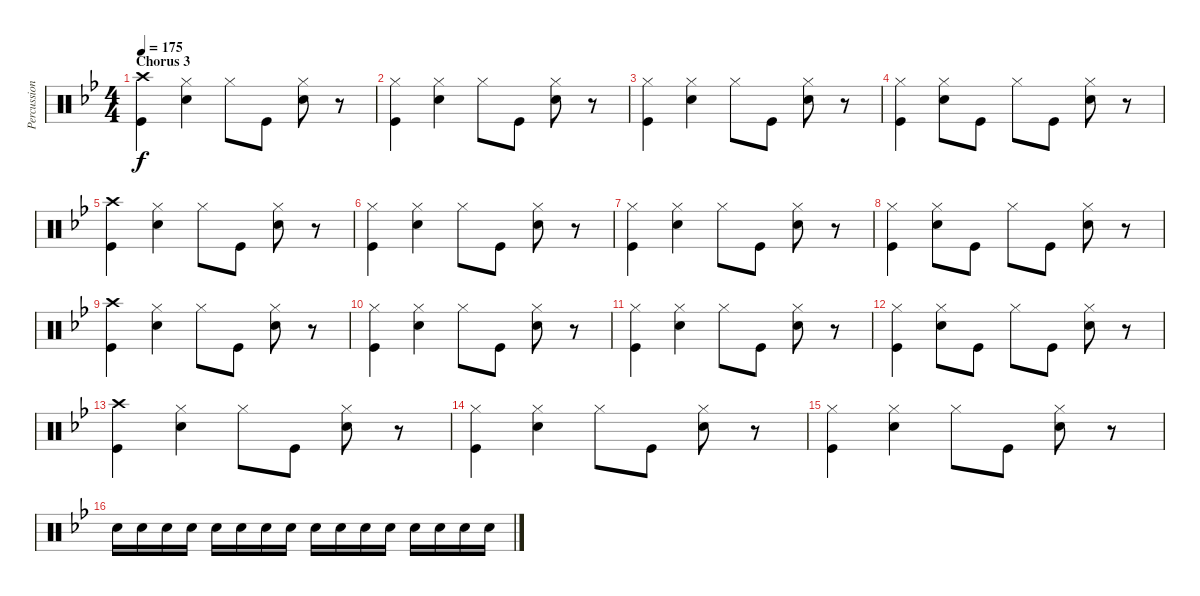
\track ("Percussion" "Percussion") {instrument percussion}
\staff {score}
\articulation defaults
\ts (4 4)
\section ("" "Chorus 3")
\tempo 175
\clef neutral
\ks bb
("Kick (hit)" "Crash high (hit)").4{dy f} ("Snare (hit) 2" "Hi-Hat (closed)").4 "Hi-Hat (closed)".8 "Kick (hit)".8 ("Snare (hit) 2" "Hi-Hat (closed)").8 r.8 |
("Kick (hit)" "Hi-Hat (closed)").4 ("Snare (hit) 2" "Hi-Hat (closed)").4 "Hi-Hat (closed)".8 "Kick (hit)".8 ("Snare (hit) 2" "Hi-Hat (closed)").8 r.8 |
("Kick (hit)" "Hi-Hat (closed)").4 ("Snare (hit) 2" "Hi-Hat (closed)").4 "Hi-Hat (closed)".8 "Kick (hit)".8 ("Snare (hit) 2" "Hi-Hat (closed)").8 r.8 |
("Kick (hit)" "Hi-Hat (closed)").4 ("Snare (hit) 2" "Hi-Hat (closed)").8 "Kick (hit)".8 "Hi-Hat (closed)".8 "Kick (hit)".8 ("Snare (hit) 2" "Hi-Hat (closed)").8 r.8 |
("Kick (hit)" "Crash high (hit)").4 ("Snare (hit) 2" "Hi-Hat (closed)").4 "Hi-Hat (closed)".8 "Kick (hit)".8 ("Snare (hit) 2" "Hi-Hat (closed)").8 r.8 |
("Kick (hit)" "Hi-Hat (closed)").4 ("Snare (hit) 2" "Hi-Hat (closed)").4 "Hi-Hat (closed)".8 "Kick (hit)".8 ("Snare (hit) 2" "Hi-Hat (closed)").8 r.8 |
("Kick (hit)" "Hi-Hat (closed)").4 ("Snare (hit) 2" "Hi-Hat (closed)").4 "Hi-Hat (closed)".8 "Kick (hit)".8 ("Snare (hit) 2" "Hi-Hat (closed)").8 r.8 |
("Kick (hit)" "Hi-Hat (closed)").4 ("Snare (hit) 2" "Hi-Hat (closed)").8 "Kick (hit)".8 "Hi-Hat (closed)".8 "Kick (hit)".8 ("Snare (hit) 2" "Hi-Hat (closed)").8 r.8 |
("Kick (hit)" "Crash high (hit)").4 ("Snare (hit) 2" "Hi-Hat (closed)").4 "Hi-Hat (closed)".8 "Kick (hit)".8 ("Snare (hit) 2" "Hi-Hat (closed)").8 r.8 |
("Kick (hit)" "Hi-Hat (closed)").4 ("Snare (hit) 2" "Hi-Hat (closed)").4 "Hi-Hat (closed)".8 "Kick (hit)".8 ("Snare (hit) 2" "Hi-Hat (closed)").8 r.8 |
("Kick (hit)" "Hi-Hat (closed)").4 ("Snare (hit) 2" "Hi-Hat (closed)").4 "Hi-Hat (closed)".8 "Kick (hit)".8 ("Snare (hit) 2" "Hi-Hat (closed)").8 r.8 |
("Kick (hit)" "Hi-Hat (closed)").4 ("Snare (hit) 2" "Hi-Hat (closed)").8 "Kick (hit)".8 "Hi-Hat (closed)".8 "Kick (hit)".8 ("Snare (hit) 2" "Hi-Hat (closed)").8 r.8 |
("Kick (hit)" "Crash high (hit)").4 ("Snare (hit) 2" "Hi-Hat (closed)").4 "Hi-Hat (closed)".8 "Kick (hit)".8 ("Snare (hit) 2" "Hi-Hat (closed)").8 r.8 |
("Kick (hit)" "Hi-Hat (closed)").4 ("Snare (hit) 2" "Hi-Hat (closed)").4 "Hi-Hat (closed)".8 "Kick (hit)".8 ("Snare (hit) 2" "Hi-Hat (closed)").8 r.8 |
("Kick (hit)" "Hi-Hat (closed)").4 ("Snare (hit) 2" "Hi-Hat (closed)").4 "Hi-Hat (closed)".8 "Kick (hit)".8 ("Snare (hit) 2" "Hi-Hat (closed)").8 r.8 |
"Snare (hit) 2".16 "Snare (hit) 2".16 "Snare (hit) 2".16 "Snare (hit) 2".16 "Snare (hit) 2".16 "Snare (hit) 2".16 "Snare (hit) 2".16 "Snare (hit) 2".16 "Snare (hit) 2".16 "Snare (hit) 2".16 "Snare (hit) 2".16 "Snare (hit) 2".16 "Snare (hit) 2".16 "Snare (hit) 2".16 "Snare (hit) 2".16 "Snare (hit) 2".16
